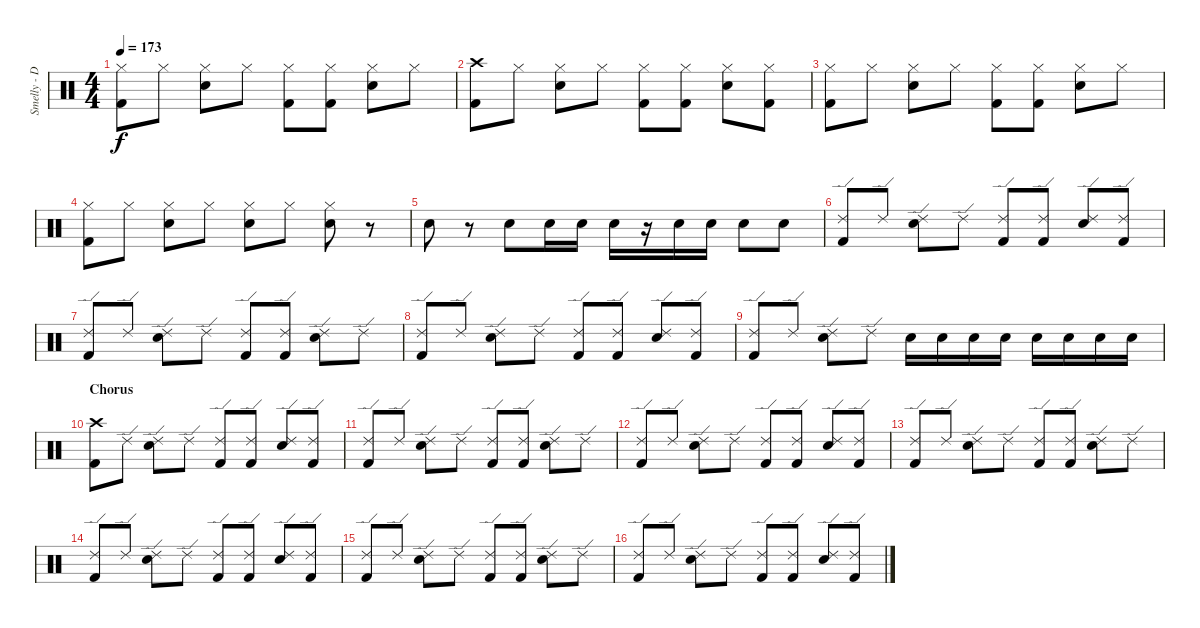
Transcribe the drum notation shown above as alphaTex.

\track ("Smelly - Drums" "Smelly - D") {instrument percussion}
\staff {score}
\articulation defaults
\ts (4 4)
\tempo 173
\clef neutral
\ks c
("Hi-Hat (closed)" "Kick (hit) 2").8{dy f} "Hi-Hat (closed)".8 ("Hi-Hat (closed)" "Snare (hit) 2").8 "Hi-Hat (closed)".8 ("Hi-Hat (closed)" "Kick (hit) 2").8 ("Hi-Hat (closed)" "Kick (hit) 2").8 ("Hi-Hat (closed)" "Snare (hit) 2").8 "Hi-Hat (closed)".8 |
("Crash high (hit)" "Kick (hit) 2").8 "Hi-Hat (closed)".8 ("Hi-Hat (closed)" "Snare (hit) 2").8 "Hi-Hat (closed)".8 ("Hi-Hat (closed)" "Kick (hit) 2").8 ("Hi-Hat (closed)" "Kick (hit) 2").8 ("Hi-Hat (closed)" "Snare (hit) 2").8 ("Hi-Hat (closed)" "Kick (hit) 2").8 |
("Hi-Hat (closed)" "Kick (hit) 2").8 "Hi-Hat (closed)".8 ("Hi-Hat (closed)" "Snare (hit) 2").8 "Hi-Hat (closed)".8 ("Hi-Hat (closed)" "Kick (hit) 2").8 ("Hi-Hat (closed)" "Kick (hit) 2").8 ("Hi-Hat (closed)" "Snare (hit) 2").8 "Hi-Hat (closed)".8 |
("Hi-Hat (closed)" "Kick (hit) 2").8 "Hi-Hat (closed)".8 ("Hi-Hat (closed)" "Snare (hit) 2").8 "Hi-Hat (closed)".8 ("Hi-Hat (closed)" "Snare (hit) 2").8 "Hi-Hat (closed)".8 ("Hi-Hat (closed)" "Snare (hit) 2").8 r.8 |
"Snare (hit) 2".8 r.8 "Snare (hit) 2".8 "Snare (hit) 2".16 "Snare (hit) 2".16 "Snare (hit) 2".16 r.16 "Snare (hit) 2".16 "Snare (hit) 2".16 "Snare (hit) 2".8 "Snare (hit) 2".8 |
("Ride (edge) 2" "Kick (hit) 2").8 "Ride (edge) 2".8 ("Ride (edge) 2" "Snare (hit) 2").8 "Ride (edge) 2".8 ("Ride (edge) 2" "Kick (hit) 2").8 ("Ride (edge) 2" "Kick (hit) 2").8 ("Ride (edge) 2" "Snare (hit) 2").8 ("Ride (edge) 2" "Kick (hit) 2").8 |
("Ride (edge) 2" "Kick (hit) 2").8 "Ride (edge) 2".8 ("Ride (edge) 2" "Snare (hit) 2").8 "Ride (edge) 2".8 ("Ride (edge) 2" "Kick (hit) 2").8 ("Ride (edge) 2" "Kick (hit) 2").8 ("Ride (edge) 2" "Snare (hit) 2").8 "Ride (edge) 2".8 |
("Ride (edge) 2" "Kick (hit) 2").8 "Ride (edge) 2".8 ("Ride (edge) 2" "Snare (hit) 2").8 "Ride (edge) 2".8 ("Ride (edge) 2" "Kick (hit) 2").8 ("Ride (edge) 2" "Kick (hit) 2").8 ("Ride (edge) 2" "Snare (hit) 2").8 ("Ride (edge) 2" "Kick (hit) 2").8 |
("Ride (edge) 2" "Kick (hit) 2").8 "Ride (edge) 2".8 ("Ride (edge) 2" "Snare (hit) 2").8 "Ride (edge) 2".8 "Snare (hit) 2".16 "Snare (hit) 2".16 "Snare (hit) 2".16 "Snare (hit) 2".16 "Snare (hit) 2".16 "Snare (hit) 2".16 "Snare (hit) 2".16 "Snare (hit) 2".16 |
\section ("" "Chorus")
("Crash high (hit)" "Kick (hit) 2").8 "Ride (edge) 2".8 ("Ride (edge) 2" "Snare (hit) 2").8 "Ride (edge) 2".8 ("Ride (edge) 2" "Kick (hit) 2").8 ("Ride (edge) 2" "Kick (hit) 2").8 ("Ride (edge) 2" "Snare (hit) 2").8 ("Ride (edge) 2" "Kick (hit) 2").8 |
("Ride (edge) 2" "Kick (hit) 2").8 "Ride (edge) 2".8 ("Ride (edge) 2" "Snare (hit) 2").8 "Ride (edge) 2".8 ("Ride (edge) 2" "Kick (hit) 2").8 ("Ride (edge) 2" "Kick (hit) 2").8 ("Ride (edge) 2" "Snare (hit) 2").8 "Ride (edge) 2".8 |
("Ride (edge) 2" "Kick (hit) 2").8 "Ride (edge) 2".8 ("Ride (edge) 2" "Snare (hit) 2").8 "Ride (edge) 2".8 ("Ride (edge) 2" "Kick (hit) 2").8 ("Ride (edge) 2" "Kick (hit) 2").8 ("Ride (edge) 2" "Snare (hit) 2").8 ("Ride (edge) 2" "Kick (hit) 2").8 |
("Ride (edge) 2" "Kick (hit) 2").8 "Ride (edge) 2".8 ("Ride (edge) 2" "Snare (hit) 2").8 "Ride (edge) 2".8 ("Ride (edge) 2" "Kick (hit) 2").8 ("Ride (edge) 2" "Kick (hit) 2").8 ("Ride (edge) 2" "Snare (hit) 2").8 "Ride (edge) 2".8 |
("Ride (edge) 2" "Kick (hit) 2").8 "Ride (edge) 2".8 ("Ride (edge) 2" "Snare (hit) 2").8 "Ride (edge) 2".8 ("Ride (edge) 2" "Kick (hit) 2").8 ("Ride (edge) 2" "Kick (hit) 2").8 ("Ride (edge) 2" "Snare (hit) 2").8 ("Ride (edge) 2" "Kick (hit) 2").8 |
("Ride (edge) 2" "Kick (hit) 2").8 "Ride (edge) 2".8 ("Ride (edge) 2" "Snare (hit) 2").8 "Ride (edge) 2".8 ("Ride (edge) 2" "Kick (hit) 2").8 ("Ride (edge) 2" "Kick (hit) 2").8 ("Ride (edge) 2" "Snare (hit) 2").8 "Ride (edge) 2".8 |
("Ride (edge) 2" "Kick (hit) 2").8 "Ride (edge) 2".8 ("Ride (edge) 2" "Snare (hit) 2").8 "Ride (edge) 2".8 ("Ride (edge) 2" "Kick (hit) 2").8 ("Ride (edge) 2" "Kick (hit) 2").8 ("Ride (edge) 2" "Snare (hit) 2").8 ("Ride (edge) 2" "Kick (hit) 2").8
